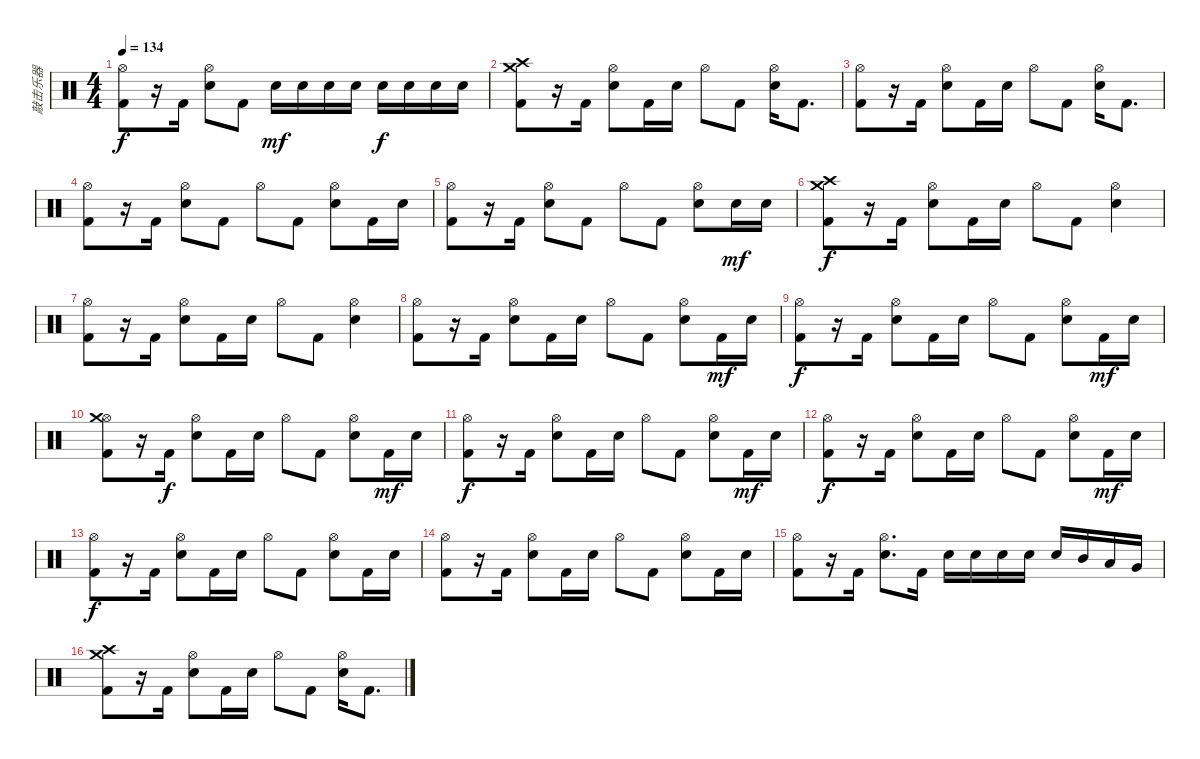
\track ("敲击乐器" "敲击乐器") {instrument percussion}
\staff {score}
\articulation defaults
\ts (4 4)
\tempo 134
\clef neutral
\ks c
("Hi-Hat (open)" "Kick (hit) 2").8{dy f} r.16 "Kick (hit) 2".16 ("Hi-Hat (open)" "Electric Snare (hit)").8 "Kick (hit) 2".8 "Electric Snare (hit)".16{dy mf} "Electric Snare (hit)".16 "Electric Snare (hit)".16 "Electric Snare (hit)".16 "Electric Snare (hit)".16{dy f} "Electric Snare (hit)".16 "Electric Snare (hit)".16 "Electric Snare (hit)".16 |
("Crash high (hit)" "Crash medium (hit)" "Kick (hit) 2").8 r.16 "Kick (hit) 2".16 ("Hi-Hat (open)" "Electric Snare (hit)").8 "Kick (hit) 2".16 "Electric Snare (hit)".16 "Hi-Hat (open)".8 "Kick (hit) 2".8 ("Hi-Hat (open)" "Electric Snare (hit)").16 "Kick (hit) 2".8{d} |
("Hi-Hat (open)" "Kick (hit) 2").8 r.16 "Kick (hit) 2".16 ("Hi-Hat (open)" "Electric Snare (hit)").8 "Kick (hit) 2".16 "Electric Snare (hit)".16 "Hi-Hat (open)".8 "Kick (hit) 2".8 ("Hi-Hat (open)" "Electric Snare (hit)").16 "Kick (hit) 2".8{d} |
("Hi-Hat (open)" "Kick (hit) 2").8 r.16 "Kick (hit) 2".16 ("Hi-Hat (open)" "Electric Snare (hit)").8 "Kick (hit) 2".8 "Hi-Hat (open)".8 "Kick (hit) 2".8 ("Hi-Hat (open)" "Electric Snare (hit)").8 "Kick (hit) 2".16 "Electric Snare (hit)".16 |
("Hi-Hat (open)" "Kick (hit) 2").8 r.16 "Kick (hit) 2".16 ("Hi-Hat (open)" "Electric Snare (hit)").8 "Kick (hit) 2".8 "Hi-Hat (open)".8 "Kick (hit) 2".8 ("Hi-Hat (open)" "Electric Snare (hit)").8 "Electric Snare (hit)".16{dy mf} "Electric Snare (hit)".16 |
("Crash high (hit)" "Crash medium (hit)" "Kick (hit) 2").8{dy f} r.16 "Kick (hit) 2".16 ("Hi-Hat (open)" "Electric Snare (hit)").8 "Kick (hit) 2".16 "Electric Snare (hit)".16 "Hi-Hat (open)".8 "Kick (hit) 2".8 ("Hi-Hat (open)" "Electric Snare (hit)").4 |
("Hi-Hat (open)" "Kick (hit) 2").8 r.16 "Kick (hit) 2".16 ("Hi-Hat (open)" "Electric Snare (hit)").8 "Kick (hit) 2".16 "Electric Snare (hit)".16 "Hi-Hat (open)".8 "Kick (hit) 2".8 ("Hi-Hat (open)" "Electric Snare (hit)").4 |
("Hi-Hat (open)" "Kick (hit) 2").8 r.16 "Kick (hit) 2".16 ("Hi-Hat (open)" "Electric Snare (hit)").8 "Kick (hit) 2".16 "Electric Snare (hit)".16 "Hi-Hat (open)".8 "Kick (hit) 2".8 ("Hi-Hat (open)" "Electric Snare (hit)").8 "Kick (hit) 2".16{dy mf} "Electric Snare (hit)".16 |
("Hi-Hat (open)" "Kick (hit) 2").8{dy f} r.16 "Kick (hit) 2".16 ("Hi-Hat (open)" "Electric Snare (hit)").8 "Kick (hit) 2".16 "Electric Snare (hit)".16 "Hi-Hat (open)".8 "Kick (hit) 2".8 ("Hi-Hat (open)" "Electric Snare (hit)").8 "Kick (hit) 2".16{dy mf} "Electric Snare (hit)".16 |
("Hi-Hat (open)" "Crash medium (hit)" "Kick (hit) 2").8 r.16 "Kick (hit) 2".16{dy f} ("Hi-Hat (open)" "Electric Snare (hit)").8 "Kick (hit) 2".16 "Electric Snare (hit)".16 "Hi-Hat (open)".8 "Kick (hit) 2".8 ("Hi-Hat (open)" "Electric Snare (hit)").8 "Kick (hit) 2".16{dy mf} "Electric Snare (hit)".16 |
("Hi-Hat (open)" "Kick (hit) 2").8{dy f} r.16 "Kick (hit) 2".16 ("Hi-Hat (open)" "Electric Snare (hit)").8 "Kick (hit) 2".16 "Electric Snare (hit)".16 "Hi-Hat (open)".8 "Kick (hit) 2".8 ("Hi-Hat (open)" "Electric Snare (hit)").8 "Kick (hit) 2".16{dy mf} "Electric Snare (hit)".16 |
("Hi-Hat (open)" "Kick (hit) 2").8{dy f} r.16 "Kick (hit) 2".16 ("Hi-Hat (open)" "Electric Snare (hit)").8 "Kick (hit) 2".16 "Electric Snare (hit)".16 "Hi-Hat (open)".8 "Kick (hit) 2".8 ("Hi-Hat (open)" "Electric Snare (hit)").8 "Kick (hit) 2".16{dy mf} "Electric Snare (hit)".16 |
("Hi-Hat (open)" "Kick (hit) 2").8{dy f} r.16 "Kick (hit) 2".16 ("Hi-Hat (open)" "Electric Snare (hit)").8 "Kick (hit) 2".16 "Electric Snare (hit)".16 "Hi-Hat (open)".8 "Kick (hit) 2".8 ("Hi-Hat (open)" "Electric Snare (hit)").8 "Kick (hit) 2".16 "Electric Snare (hit)".16 |
("Hi-Hat (open)" "Kick (hit) 2").8 r.16 "Kick (hit) 2".16 ("Hi-Hat (open)" "Electric Snare (hit)").8 "Kick (hit) 2".16 "Electric Snare (hit)".16 "Hi-Hat (open)".8 "Kick (hit) 2".8 ("Hi-Hat (open)" "Electric Snare (hit)").8 "Kick (hit) 2".16 "Electric Snare (hit)".16 |
("Hi-Hat (open)" "Kick (hit) 2").8 r.16 "Kick (hit) 2".16 ("Hi-Hat (open)" "Electric Snare (hit)").8{d} "Kick (hit) 2".16 "Electric Snare (hit)".16 "Electric Snare (hit)".16 "Electric Snare (hit)".16 "Electric Snare (hit)".16 "Electric Snare (hit)".16 "Mid Tom (hit)".16 "Low Tom (hit)".16 "Very Low Tom (hit)".16 |
("Crash high (hit)" "Crash medium (hit)" "Kick (hit) 2").8 r.16 "Kick (hit) 2".16 ("Hi-Hat (open)" "Electric Snare (hit)").8 "Kick (hit) 2".16 "Electric Snare (hit)".16 "Hi-Hat (open)".8 "Kick (hit) 2".8 ("Hi-Hat (open)" "Electric Snare (hit)").16 "Kick (hit) 2".8{d}
